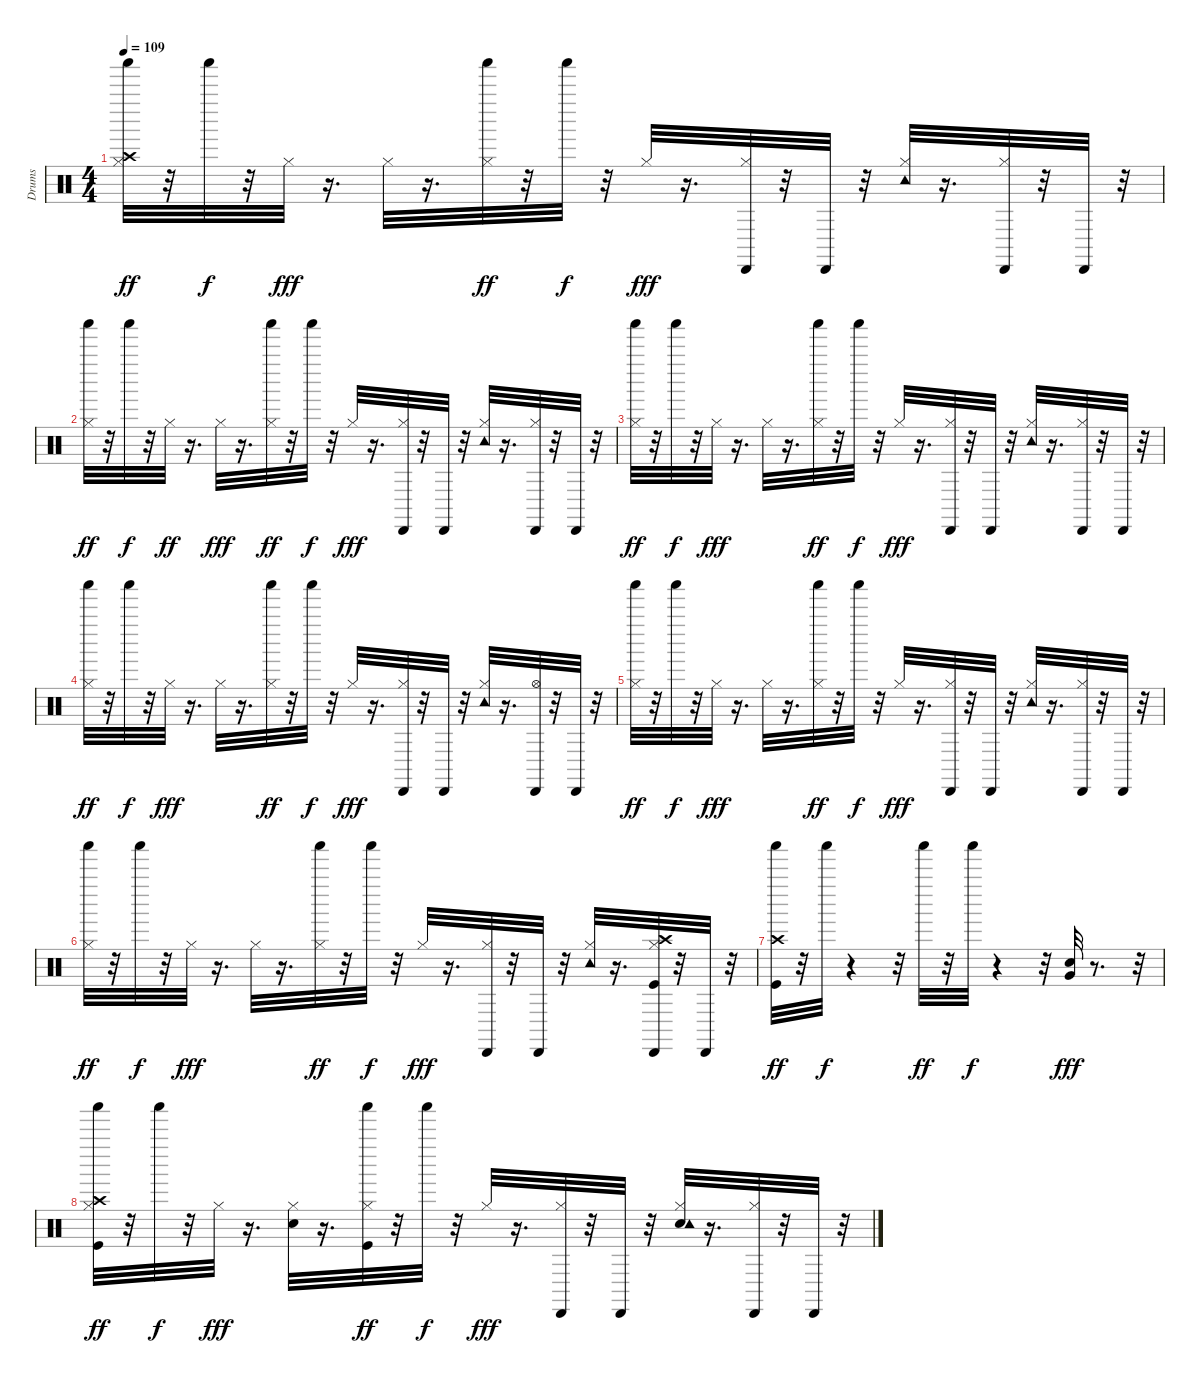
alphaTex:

\track ("Drums               " "Drums     ") {instrument percussion}
\staff {score}
\articulation defaults
\ts (4 4)
\tempo 109
\clef neutral
\ks c
("Hi-Hat (closed)" "Crash high (hit)" "Shaker (hit)").32{dy ff} r.32 "Shaker (hit)".32{dy f} r.32 "Hi-Hat (closed)".32{dy fff} r.16{d} "Hi-Hat (closed)".32 r.16{d} ("Hi-Hat (closed)" "Shaker (hit)").32{dy ff} r.32 "Shaker (hit)".32{dy f} r.32 "Hi-Hat (closed)".32{dy fff} r.16{d} ("Hi-Hat (closed)" "Cabasa (hit)").32 r.32 "Cabasa (hit)".32 r.32 ("Hi-Hat (closed)" "Tambourine (hit)").32 r.16{d} ("Hi-Hat (closed)" "Cabasa (hit)").32 r.32 "Cabasa (hit)".32 r.32 |
("Hi-Hat (closed)" "Shaker (hit)").32{dy ff} r.32 "Shaker (hit)".32{dy f} r.32 "Hi-Hat (closed)".32{dy ff} r.16{d} "Hi-Hat (closed)".32{dy fff} r.16{d} ("Hi-Hat (closed)" "Shaker (hit)").32{dy ff} r.32 "Shaker (hit)".32{dy f} r.32 "Hi-Hat (closed)".32{dy fff} r.16{d} ("Hi-Hat (closed)" "Cabasa (hit)").32 r.32 "Cabasa (hit)".32 r.32 ("Hi-Hat (closed)" "Tambourine (hit)").32 r.16{d} ("Hi-Hat (closed)" "Cabasa (hit)").32 r.32 "Cabasa (hit)".32 r.32 |
("Hi-Hat (closed)" "Shaker (hit)").32{dy ff} r.32 "Shaker (hit)".32{dy f} r.32 "Hi-Hat (closed)".32{dy fff} r.16{d} "Hi-Hat (closed)".32 r.16{d} ("Hi-Hat (closed)" "Shaker (hit)").32{dy ff} r.32 "Shaker (hit)".32{dy f} r.32 "Hi-Hat (closed)".32{dy fff} r.16{d} ("Hi-Hat (closed)" "Cabasa (hit)").32 r.32 "Cabasa (hit)".32 r.32 ("Hi-Hat (closed)" "Tambourine (hit)").32 r.16{d} ("Hi-Hat (closed)" "Cabasa (hit)").32 r.32 "Cabasa (hit)".32 r.32 |
("Hi-Hat (closed)" "Shaker (hit)").32{dy ff} r.32 "Shaker (hit)".32{dy f} r.32 "Hi-Hat (closed)".32{dy fff} r.16{d} "Hi-Hat (closed)".32 r.16{d} ("Hi-Hat (closed)" "Shaker (hit)").32{dy ff} r.32 "Shaker (hit)".32{dy f} r.32 "Hi-Hat (closed)".32{dy fff} r.16{d} ("Hi-Hat (closed)" "Cabasa (hit)").32 r.32 "Cabasa (hit)".32 r.32 ("Hi-Hat (closed)" "Tambourine (hit)").32 r.16{d} ("Hi-Hat (open)" "Cabasa (hit)").32 r.32 "Cabasa (hit)".32 r.32 |
("Hi-Hat (closed)" "Shaker (hit)").32{dy ff} r.32 "Shaker (hit)".32{dy f} r.32 "Hi-Hat (closed)".32{dy fff} r.16{d} "Hi-Hat (closed)".32 r.16{d} ("Hi-Hat (closed)" "Shaker (hit)").32{dy ff} r.32 "Shaker (hit)".32{dy f} r.32 "Hi-Hat (closed)".32{dy fff} r.16{d} ("Hi-Hat (closed)" "Cabasa (hit)").32 r.32 "Cabasa (hit)".32 r.32 ("Hi-Hat (closed)" "Tambourine (hit)").32 r.16{d} ("Hi-Hat (closed)" "Cabasa (hit)").32 r.32 "Cabasa (hit)".32 r.32 |
("Hi-Hat (closed)" "Shaker (hit)").32{dy ff} r.32 "Shaker (hit)".32{dy f} r.32 "Hi-Hat (closed)".32{dy fff} r.16{d} "Hi-Hat (closed)".32 r.16{d} ("Hi-Hat (closed)" "Shaker (hit)").32{dy ff} r.32 "Shaker (hit)".32{dy f} r.32 "Hi-Hat (closed)".32{dy fff} r.16{d} ("Hi-Hat (closed)" "Cabasa (hit)").32 r.32 "Cabasa (hit)".32 r.32 ("Hi-Hat (closed)" "Tambourine (hit)").32 r.16{d} ("Kick (hit)" "Hi-Hat (closed)" "Crash high (hit)" "Cabasa (hit)").32 r.32 "Cabasa (hit)".32 r.32 |
("Kick (hit)" "Crash high (hit)" "Shaker (hit)").32{dy ff} r.32 "Shaker (hit)".32{dy f} r.4 r.32 "Shaker (hit)".32{dy ff} r.32 "Shaker (hit)".32{dy f} r.4 r.32 ("Electric Snare (hit)" "Very Low Tom (hit)").32{dy fff} r.8{d} r.32 |
("Kick (hit)" "Hi-Hat (closed)" "Crash high (hit)" "Shaker (hit)").32{dy ff} r.32 "Shaker (hit)".32{dy f} r.32 "Hi-Hat (closed)".32{dy fff} r.16{d} ("Electric Snare (hit)" "Hi-Hat (closed)").32 r.16{d} ("Kick (hit)" "Hi-Hat (closed)" "Shaker (hit)").32{dy ff} r.32 "Shaker (hit)".32{dy f} r.32 "Hi-Hat (closed)".32{dy fff} r.16{d} ("Hi-Hat (closed)" "Cabasa (hit)").32 r.32 "Cabasa (hit)".32 r.32 ("Electric Snare (hit)" "Hi-Hat (closed)" "Tambourine (hit)").32 r.16{d} ("Hi-Hat (closed)" "Cabasa (hit)").32 r.32 "Cabasa (hit)".32 r.32
